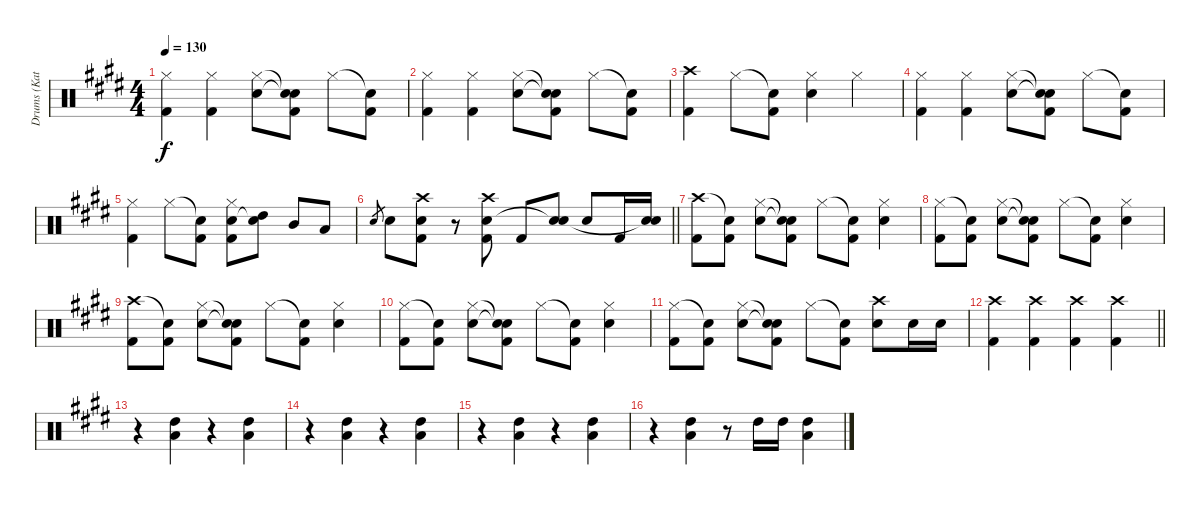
\track ("Drums (Katsuji)" "Drums (Kat") {instrument percussion}
\staff {score}
\articulation defaults
\ts (4 4)
\tempo 130
\clef neutral
\ks e
("Hi-Hat (closed)" "Kick (hit) 2").4{dy f} ("Hi-Hat (closed)" "Kick (hit) 2").4 ("Hi-Hat (closed)" "Snare (hit) 2").8 ("Snare (hit)"{t} "Snare (hit)"{t} "Kick (hit) 2").8 "Hi-Hat (closed)".8 ("Snare (hit)"{t} "Kick (hit) 2").8 |
("Hi-Hat (closed)" "Kick (hit) 2").4 ("Hi-Hat (closed)" "Kick (hit) 2").4 ("Hi-Hat (closed)" "Snare (hit) 2").8 ("Snare (hit)"{t} "Snare (hit)"{t} "Kick (hit) 2").8 "Hi-Hat (closed)".8 ("Snare (hit)"{t} "Kick (hit) 2").8 |
("Crash high (hit)" "Kick (hit) 2").4 "Hi-Hat (closed)".8 ("Snare (hit)"{t} "Kick (hit) 2").8 ("Hi-Hat (closed)" "Snare (hit) 2").4 "Hi-Hat (closed)".4 |
("Hi-Hat (closed)" "Kick (hit) 2").4 ("Hi-Hat (closed)" "Kick (hit) 2").4 ("Hi-Hat (closed)" "Snare (hit) 2").8 ("Snare (hit)"{t} "Snare (hit)"{t} "Kick (hit) 2").8 "Hi-Hat (closed)".8 ("Snare (hit)"{t} "Kick (hit) 2").8 |
("Hi-Hat (closed)" "Kick (hit) 2").4 "Hi-Hat (closed)".8 ("Snare (hit)"{t} "Kick (hit) 2").8 ("Hi-Hat (closed)" "Snare (hit) 2" "Kick (hit) 2").8 ("High Tom (hit)" "Snare (hit)"{t}).8 "Mid Tom (hit)".8 "Low Tom (hit)".8 |
\barLineRight lightlight "Snare (hit) 2".8{gr} "Snare (hit) 2".8
("Crash high (hit)" "Snare (hit) 2" "Kick (hit) 2").8 r.8 ("Crash high (hit)" "Snare (hit) 2" "Kick (hit) 2").8 "Kick (hit) 2".8 ("Snare (hit) 2" "Snare (hit)"{t}).8 "Snare (hit) 2".8 "Kick (hit) 2".16 ("Snare (hit) 2" "Snare (hit)"{t}).16 |
("Crash high (hit)" "Kick (hit) 2").8 ("Snare (hit)"{t} "Kick (hit) 2").8 ("Hi-Hat (closed)" "Snare (hit) 2").8 ("Snare (hit)"{t} "Snare (hit)"{t} "Kick (hit) 2").8 "Hi-Hat (closed)".8 ("Snare (hit)"{t} "Kick (hit) 2").8 ("Hi-Hat (closed)" "Snare (hit) 2").4 |
("Hi-Hat (closed)" "Kick (hit) 2").8 ("Snare (hit)"{t} "Kick (hit) 2").8 ("Hi-Hat (closed)" "Snare (hit) 2").8 ("Snare (hit)"{t} "Snare (hit)"{t} "Kick (hit) 2").8 "Hi-Hat (closed)".8 ("Snare (hit)"{t} "Kick (hit) 2").8 ("Hi-Hat (closed)" "Snare (hit) 2").4 |
("Crash high (hit)" "Kick (hit) 2").8 ("Snare (hit)"{t} "Kick (hit) 2").8 ("Hi-Hat (closed)" "Snare (hit) 2").8 ("Snare (hit)"{t} "Snare (hit)"{t} "Kick (hit) 2").8 "Hi-Hat (closed)".8 ("Snare (hit)"{t} "Kick (hit) 2").8 ("Hi-Hat (closed)" "Snare (hit) 2").4 |
("Hi-Hat (closed)" "Kick (hit) 2").8 ("Snare (hit)"{t} "Kick (hit) 2").8 ("Hi-Hat (closed)" "Snare (hit) 2").8 ("Snare (hit)"{t} "Snare (hit)"{t} "Kick (hit) 2").8 "Hi-Hat (closed)".8 ("Snare (hit)"{t} "Kick (hit) 2").8 ("Hi-Hat (closed)" "Snare (hit) 2").4 |
("Hi-Hat (closed)" "Kick (hit) 2").8 ("Snare (hit)"{t} "Kick (hit) 2").8 ("Hi-Hat (closed)" "Snare (hit) 2").8 ("Snare (hit)"{t} "Snare (hit)"{t} "Kick (hit) 2").8 "Hi-Hat (closed)".8 ("Snare (hit)"{t} "Kick (hit) 2").8 ("Crash high (hit)" "Snare (hit) 2").8 "Snare (hit) 2".16 "Snare (hit) 2".16 |
\barLineRight lightlight
("Crash high (hit)" "Kick (hit) 2").4 ("Crash high (hit)" "Kick (hit) 2").4 ("Crash high (hit)" "Kick (hit) 2").4 ("Crash high (hit)" "Kick (hit) 2").4 |
r.4 ("High Tom (hit)" "Low Tom (hit)").4 r.4 ("High Tom (hit)" "Low Tom (hit)").4 |
r.4 ("High Tom (hit)" "Low Tom (hit)").4 r.4 ("High Tom (hit)" "Low Tom (hit)").4 |
r.4 ("High Tom (hit)" "Low Tom (hit)").4 r.4 ("High Tom (hit)" "Low Tom (hit)").4 |
r.4 ("High Tom (hit)" "Low Tom (hit)").4 r.8 "High Tom (hit)".16 "High Tom (hit)".16 ("High Tom (hit)" "Low Tom (hit)").4
